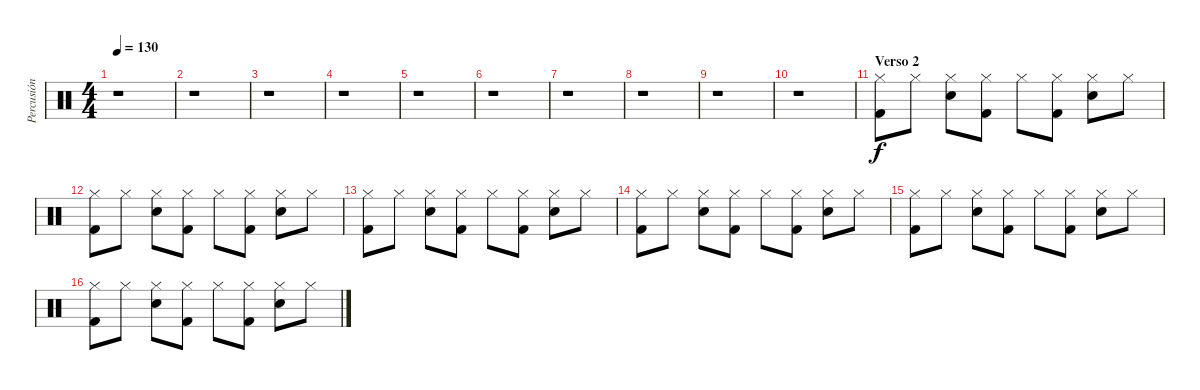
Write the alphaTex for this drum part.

\track ("Percusión" "Percusión") {instrument percussion}
\staff {score}
\articulation defaults
\ts (4 4)
\tempo 130
\clef neutral
\ks c
r.1{dy f} |
r.1 |
r.1 |
r.1 |
r.1 |
r.1 |
r.1 |
r.1 |
r.1 |
r.1 |
\section ("" "Verso 2")
("Hi-Hat (closed)" "Kick (hit) 2").8 "Hi-Hat (closed)".8 ("Hi-Hat (closed)" "Electric Snare (hit)").8 ("Hi-Hat (closed)" "Kick (hit) 2").8 "Hi-Hat (closed)".8 ("Hi-Hat (closed)" "Kick (hit) 2").8 ("Hi-Hat (closed)" "Electric Snare (hit)").8 "Hi-Hat (closed)".8 |
("Hi-Hat (closed)" "Kick (hit) 2").8 "Hi-Hat (closed)".8 ("Hi-Hat (closed)" "Electric Snare (hit)").8 ("Hi-Hat (closed)" "Kick (hit) 2").8 "Hi-Hat (closed)".8 ("Hi-Hat (closed)" "Kick (hit) 2").8 ("Hi-Hat (closed)" "Electric Snare (hit)").8 "Hi-Hat (closed)".8 |
("Hi-Hat (closed)" "Kick (hit) 2").8 "Hi-Hat (closed)".8 ("Hi-Hat (closed)" "Electric Snare (hit)").8 ("Hi-Hat (closed)" "Kick (hit) 2").8 "Hi-Hat (closed)".8 ("Hi-Hat (closed)" "Kick (hit) 2").8 ("Hi-Hat (closed)" "Electric Snare (hit)").8 "Hi-Hat (closed)".8 |
("Hi-Hat (closed)" "Kick (hit) 2").8 "Hi-Hat (closed)".8 ("Hi-Hat (closed)" "Electric Snare (hit)").8 ("Hi-Hat (closed)" "Kick (hit) 2").8 "Hi-Hat (closed)".8 ("Hi-Hat (closed)" "Kick (hit) 2").8 ("Hi-Hat (closed)" "Electric Snare (hit)").8 "Hi-Hat (closed)".8 |
("Hi-Hat (closed)" "Kick (hit) 2").8 "Hi-Hat (closed)".8 ("Hi-Hat (closed)" "Electric Snare (hit)").8 ("Hi-Hat (closed)" "Kick (hit) 2").8 "Hi-Hat (closed)".8 ("Hi-Hat (closed)" "Kick (hit) 2").8 ("Hi-Hat (closed)" "Electric Snare (hit)").8 "Hi-Hat (closed)".8 |
("Hi-Hat (closed)" "Kick (hit) 2").8 "Hi-Hat (closed)".8 ("Hi-Hat (closed)" "Electric Snare (hit)").8 ("Hi-Hat (closed)" "Kick (hit) 2").8 "Hi-Hat (closed)".8 ("Hi-Hat (closed)" "Kick (hit) 2").8 ("Hi-Hat (closed)" "Electric Snare (hit)").8 "Hi-Hat (closed)".8
